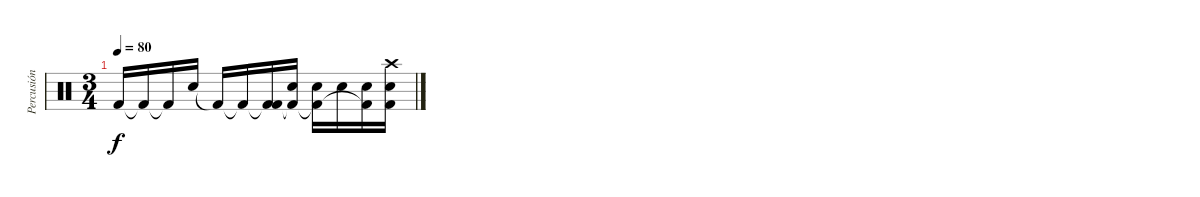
\track ("Percusión" "Percusión") {instrument percussion}
\staff {score}
\articulation defaults
\ts (3 4)
\tempo 80
\clef neutral
\ks c "Kick (hit) 2".16{dy f} "Kick (hit) 2"{t}.16 "Kick (hit) 2"{t}.16 "Electric Snare (hit)".16 "Kick (hit) 2"{t}.16 "Kick (hit) 2"{t}.16
("Kick (hit) 2"{t} "Kick (hit) 2").16 ("Electric Snare (hit)" "Kick (hit) 2"{t}).16 ("Electric Snare (hit)" "Kick (hit) 2"{t}).16 "Electric Snare (hit)".16 ("Electric Snare (hit)" "Kick (hit) 2"{t}).16 ("Crash high (hit)" "Electric Snare (hit)" "Kick (hit) 2").16
